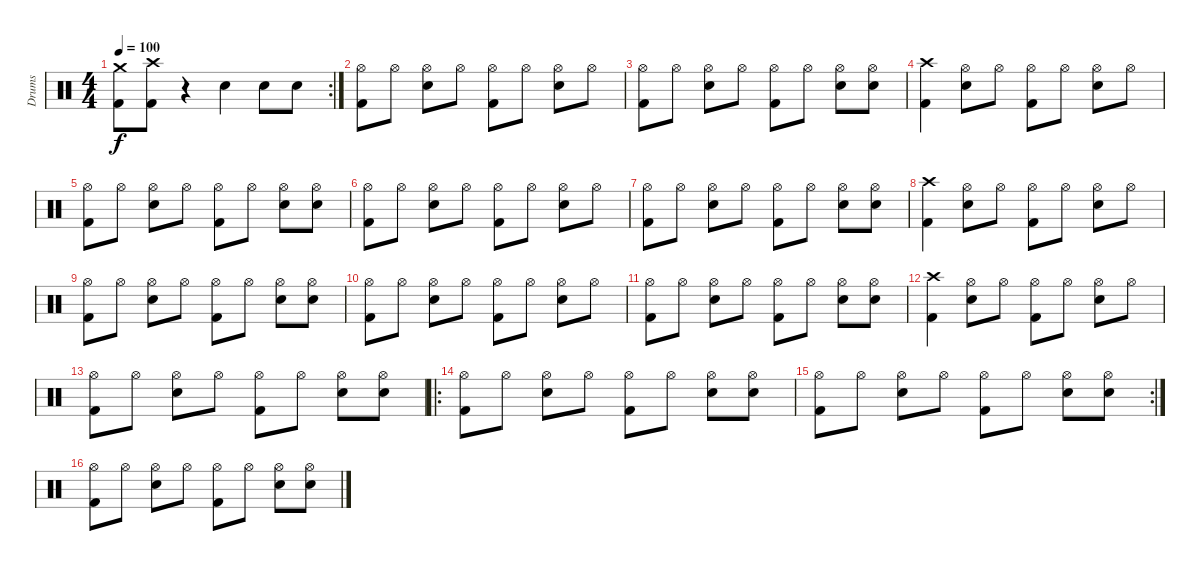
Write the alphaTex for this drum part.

\track ("Drums" "Drums") {instrument percussion}
\staff {score}
\articulation defaults
\rc 2
\ts (4 4)
\tempo 100
\clef neutral
\ks c
("Crash medium (hit)" "Kick (hit) 2").8{dy f} ("Crash high (hit)" "Kick (hit) 2").8 r.4 "Snare (hit) 2".4 "Snare (hit) 2".8 "Snare (hit) 2".8 |
("Hi-Hat (open)" "Kick (hit) 2").8 "Hi-Hat (open)".8 ("Hi-Hat (open)" "Snare (hit) 2").8 "Hi-Hat (open)".8 ("Hi-Hat (open)" "Kick (hit) 2").8 "Hi-Hat (open)".8 ("Hi-Hat (open)" "Snare (hit) 2").8 "Hi-Hat (open)".8 |
("Hi-Hat (open)" "Kick (hit) 2").8 "Hi-Hat (open)".8 ("Hi-Hat (open)" "Snare (hit) 2").8 "Hi-Hat (open)".8 ("Hi-Hat (open)" "Kick (hit) 2").8 "Hi-Hat (open)".8 ("Hi-Hat (open)" "Snare (hit) 2").8 ("Hi-Hat (open)" "Snare (hit) 2").8 |
("Crash high (hit)" "Kick (hit) 2").4 ("Hi-Hat (open)" "Snare (hit) 2").8 "Hi-Hat (open)".8 ("Hi-Hat (open)" "Kick (hit) 2").8 "Hi-Hat (open)".8 ("Hi-Hat (open)" "Snare (hit) 2").8 "Hi-Hat (open)".8 |
("Hi-Hat (open)" "Kick (hit) 2").8 "Hi-Hat (open)".8 ("Hi-Hat (open)" "Snare (hit) 2").8 "Hi-Hat (open)".8 ("Hi-Hat (open)" "Kick (hit) 2").8 "Hi-Hat (open)".8 ("Hi-Hat (open)" "Snare (hit) 2").8 ("Hi-Hat (open)" "Snare (hit) 2").8 |
("Hi-Hat (open)" "Kick (hit) 2").8 "Hi-Hat (open)".8 ("Hi-Hat (open)" "Snare (hit) 2").8 "Hi-Hat (open)".8 ("Hi-Hat (open)" "Kick (hit) 2").8 "Hi-Hat (open)".8 ("Hi-Hat (open)" "Snare (hit) 2").8 "Hi-Hat (open)".8 |
("Hi-Hat (open)" "Kick (hit) 2").8 "Hi-Hat (open)".8 ("Hi-Hat (open)" "Snare (hit) 2").8 "Hi-Hat (open)".8 ("Hi-Hat (open)" "Kick (hit) 2").8 "Hi-Hat (open)".8 ("Hi-Hat (open)" "Snare (hit) 2").8 ("Hi-Hat (open)" "Snare (hit) 2").8 |
("Crash high (hit)" "Kick (hit) 2").4 ("Hi-Hat (open)" "Snare (hit) 2").8 "Hi-Hat (open)".8 ("Hi-Hat (open)" "Kick (hit) 2").8 "Hi-Hat (open)".8 ("Hi-Hat (open)" "Snare (hit) 2").8 "Hi-Hat (open)".8 |
("Hi-Hat (open)" "Kick (hit) 2").8 "Hi-Hat (open)".8 ("Hi-Hat (open)" "Snare (hit) 2").8 "Hi-Hat (open)".8 ("Hi-Hat (open)" "Kick (hit) 2").8 "Hi-Hat (open)".8 ("Hi-Hat (open)" "Snare (hit) 2").8 ("Hi-Hat (open)" "Snare (hit) 2").8 |
("Hi-Hat (open)" "Kick (hit) 2").8 "Hi-Hat (open)".8 ("Hi-Hat (open)" "Snare (hit) 2").8 "Hi-Hat (open)".8 ("Hi-Hat (open)" "Kick (hit) 2").8 "Hi-Hat (open)".8 ("Hi-Hat (open)" "Snare (hit) 2").8 "Hi-Hat (open)".8 |
("Hi-Hat (open)" "Kick (hit) 2").8 "Hi-Hat (open)".8 ("Hi-Hat (open)" "Snare (hit) 2").8 "Hi-Hat (open)".8 ("Hi-Hat (open)" "Kick (hit) 2").8 "Hi-Hat (open)".8 ("Hi-Hat (open)" "Snare (hit) 2").8 ("Hi-Hat (open)" "Snare (hit) 2").8 |
("Crash high (hit)" "Kick (hit) 2").4 ("Hi-Hat (open)" "Snare (hit) 2").8 "Hi-Hat (open)".8 ("Hi-Hat (open)" "Kick (hit) 2").8 "Hi-Hat (open)".8 ("Hi-Hat (open)" "Snare (hit) 2").8 "Hi-Hat (open)".8 |
("Hi-Hat (open)" "Kick (hit) 2").8 "Hi-Hat (open)".8 ("Hi-Hat (open)" "Snare (hit) 2").8 "Hi-Hat (open)".8 ("Hi-Hat (open)" "Kick (hit) 2").8 "Hi-Hat (open)".8 ("Hi-Hat (open)" "Snare (hit) 2").8 ("Hi-Hat (open)" "Snare (hit) 2").8 |
\ro
("Hi-Hat (open)" "Kick (hit) 2").8 "Hi-Hat (open)".8 ("Hi-Hat (open)" "Snare (hit) 2").8 "Hi-Hat (open)".8 ("Hi-Hat (open)" "Kick (hit) 2").8 "Hi-Hat (open)".8 ("Hi-Hat (open)" "Snare (hit) 2").8 ("Hi-Hat (open)" "Snare (hit) 2").8 |
\rc 2
("Hi-Hat (open)" "Kick (hit) 2").8 "Hi-Hat (open)".8 ("Hi-Hat (open)" "Snare (hit) 2").8 "Hi-Hat (open)".8 ("Hi-Hat (open)" "Kick (hit) 2").8 "Hi-Hat (open)".8 ("Hi-Hat (open)" "Snare (hit) 2").8 ("Hi-Hat (open)" "Snare (hit) 2").8 |
("Hi-Hat (open)" "Kick (hit) 2").8 "Hi-Hat (open)".8 ("Hi-Hat (open)" "Snare (hit) 2").8 "Hi-Hat (open)".8 ("Hi-Hat (open)" "Kick (hit) 2").8 "Hi-Hat (open)".8 ("Hi-Hat (open)" "Snare (hit) 2").8 ("Hi-Hat (open)" "Snare (hit) 2").8
